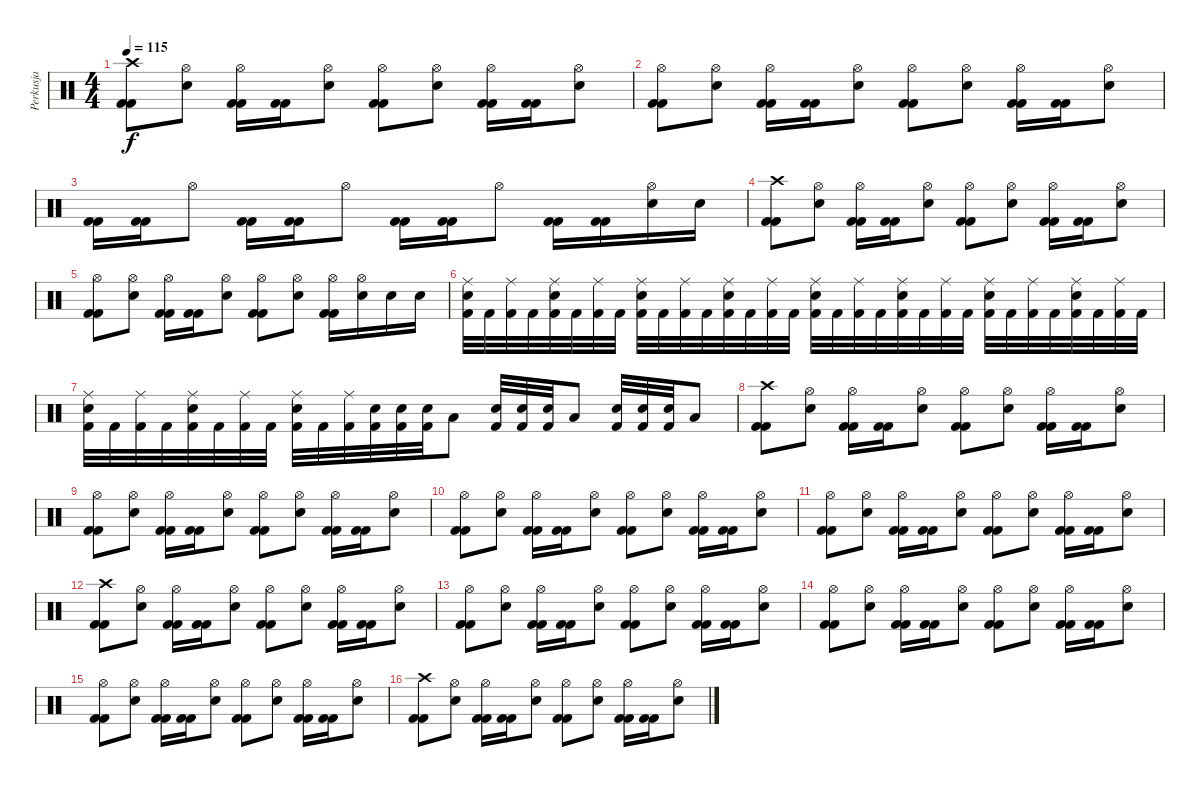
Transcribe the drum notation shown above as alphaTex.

\track ("Perkusja" "Perkusja") {instrument percussion}
\staff {score}
\articulation defaults
\ts (4 4)
\tempo 115
\clef neutral
\ks c
("Crash high (hit)" "Kick (hit) 2" "Kick (hit) 2").8{dy f} ("Hi-Hat (open)" "Electric Snare (hit)").8 ("Hi-Hat (open)" "Kick (hit) 2" "Kick (hit) 2").16 ("Kick (hit) 2" "Kick (hit) 2").16 ("Hi-Hat (open)" "Electric Snare (hit)").8 ("Hi-Hat (open)" "Kick (hit) 2" "Kick (hit) 2").8 ("Hi-Hat (open)" "Electric Snare (hit)").8 ("Hi-Hat (open)" "Kick (hit) 2" "Kick (hit) 2").16 ("Kick (hit) 2" "Kick (hit) 2").16 ("Hi-Hat (open)" "Electric Snare (hit)").8 |
("Hi-Hat (open)" "Kick (hit) 2" "Kick (hit) 2").8 ("Hi-Hat (open)" "Electric Snare (hit)").8 ("Hi-Hat (open)" "Kick (hit) 2" "Kick (hit) 2").16 ("Kick (hit) 2" "Kick (hit) 2").16 ("Hi-Hat (open)" "Electric Snare (hit)").8 ("Hi-Hat (open)" "Kick (hit) 2" "Kick (hit) 2").8 ("Hi-Hat (open)" "Electric Snare (hit)").8 ("Hi-Hat (open)" "Kick (hit) 2" "Kick (hit) 2").16 ("Kick (hit) 2" "Kick (hit) 2").16 ("Hi-Hat (open)" "Electric Snare (hit)").8 |
("Kick (hit) 2" "Kick (hit) 2").16 ("Kick (hit) 2" "Kick (hit) 2").16 "Hi-Hat (open)".8 ("Kick (hit) 2" "Kick (hit) 2").16 ("Kick (hit) 2" "Kick (hit) 2").16 "Hi-Hat (open)".8 ("Kick (hit) 2" "Kick (hit) 2").16 ("Kick (hit) 2" "Kick (hit) 2").16 "Hi-Hat (open)".8 ("Kick (hit) 2" "Kick (hit) 2").16 ("Kick (hit) 2" "Kick (hit) 2").16 ("Hi-Hat (open)" "Electric Snare (hit)").16 "Electric Snare (hit)".16 |
("Crash high (hit)" "Kick (hit) 2" "Kick (hit) 2").8 ("Hi-Hat (open)" "Electric Snare (hit)").8 ("Hi-Hat (open)" "Kick (hit) 2" "Kick (hit) 2").16 ("Kick (hit) 2" "Kick (hit) 2").16 ("Hi-Hat (open)" "Electric Snare (hit)").8 ("Hi-Hat (open)" "Kick (hit) 2" "Kick (hit) 2").8 ("Hi-Hat (open)" "Electric Snare (hit)").8 ("Hi-Hat (open)" "Kick (hit) 2" "Kick (hit) 2").16 ("Kick (hit) 2" "Kick (hit) 2").16 ("Hi-Hat (open)" "Electric Snare (hit)").8 |
("Hi-Hat (open)" "Kick (hit) 2" "Kick (hit) 2").8 ("Hi-Hat (open)" "Electric Snare (hit)").8 ("Hi-Hat (open)" "Kick (hit) 2" "Kick (hit) 2").16 ("Kick (hit) 2" "Kick (hit) 2").16 ("Hi-Hat (open)" "Electric Snare (hit)").8 ("Hi-Hat (open)" "Kick (hit) 2" "Kick (hit) 2").8 ("Hi-Hat (open)" "Electric Snare (hit)").8 ("Hi-Hat (open)" "Kick (hit) 2" "Kick (hit) 2").16 ("Hi-Hat (open)" "Electric Snare (hit)").16 "Electric Snare (hit)".16 "Electric Snare (hit)".16 |
("Ride (middle)" "Electric Snare (hit)" "Kick (hit) 2").32 "Kick (hit) 2".32 ("Ride (middle)" "Kick (hit) 2").32 "Kick (hit) 2".32 ("Ride (middle)" "Electric Snare (hit)" "Kick (hit) 2").32 "Kick (hit) 2".32 ("Ride (middle)" "Kick (hit) 2").32 "Kick (hit) 2".32 ("Ride (middle)" "Electric Snare (hit)" "Kick (hit) 2").32 "Kick (hit) 2".32 ("Ride (middle)" "Kick (hit) 2").32 "Kick (hit) 2".32 ("Ride (middle)" "Electric Snare (hit)" "Kick (hit) 2").32 "Kick (hit) 2".32 ("Ride (middle)" "Kick (hit) 2").32 "Kick (hit) 2".32 ("Ride (middle)" "Electric Snare (hit)" "Kick (hit) 2").32 "Kick (hit) 2".32 ("Ride (middle)" "Kick (hit) 2").32 "Kick (hit) 2".32 ("Ride (middle)" "Electric Snare (hit)" "Kick (hit) 2").32 "Kick (hit) 2".32 ("Ride (middle)" "Kick (hit) 2").32 "Kick (hit) 2".32 ("Ride (middle)" "Electric Snare (hit)" "Kick (hit) 2").32 "Kick (hit) 2".32 ("Ride (middle)" "Kick (hit) 2").32 "Kick (hit) 2".32 ("Ride (middle)" "Electric Snare (hit)" "Kick (hit) 2").32 "Kick (hit) 2".32 ("Ride (middle)" "Kick (hit) 2").32 "Kick (hit) 2".32 |
("Ride (middle)" "Electric Snare (hit)" "Kick (hit) 2").32 "Kick (hit) 2".32 ("Ride (middle)" "Kick (hit) 2").32 "Kick (hit) 2".32 ("Ride (middle)" "Electric Snare (hit)" "Kick (hit) 2").32 "Kick (hit) 2".32 ("Ride (middle)" "Kick (hit) 2").32 "Kick (hit) 2".32 ("Ride (middle)" "Electric Snare (hit)" "Kick (hit) 2").32 "Kick (hit) 2".32 ("Ride (middle)" "Kick (hit) 2").32 ("Electric Snare (hit)" "Kick (hit) 2").32 ("Electric Snare (hit)" "Kick (hit) 2").32 ("Electric Snare (hit)" "Kick (hit) 2").32 "Low Floor Tom (hit)".8 ("Electric Snare (hit)" "Kick (hit) 2").32 ("Electric Snare (hit)" "Kick (hit) 2").32 ("Electric Snare (hit)" "Kick (hit) 2").32 "Low Floor Tom (hit)".8 ("Electric Snare (hit)" "Kick (hit) 2").32 ("Electric Snare (hit)" "Kick (hit) 2").32 ("Electric Snare (hit)" "Kick (hit) 2").32 "Low Floor Tom (hit)".8 |
("Crash high (hit)" "Kick (hit) 2" "Kick (hit) 2").8 ("Hi-Hat (open)" "Electric Snare (hit)").8 ("Hi-Hat (open)" "Kick (hit) 2" "Kick (hit) 2").16 ("Kick (hit) 2" "Kick (hit) 2").16 ("Hi-Hat (open)" "Electric Snare (hit)").8 ("Hi-Hat (open)" "Kick (hit) 2" "Kick (hit) 2").8 ("Hi-Hat (open)" "Electric Snare (hit)").8 ("Hi-Hat (open)" "Kick (hit) 2" "Kick (hit) 2").16 ("Kick (hit) 2" "Kick (hit) 2").16 ("Hi-Hat (open)" "Electric Snare (hit)").8 |
("Hi-Hat (open)" "Kick (hit) 2" "Kick (hit) 2").8 ("Hi-Hat (open)" "Electric Snare (hit)").8 ("Hi-Hat (open)" "Kick (hit) 2" "Kick (hit) 2").16 ("Kick (hit) 2" "Kick (hit) 2").16 ("Hi-Hat (open)" "Electric Snare (hit)").8 ("Hi-Hat (open)" "Kick (hit) 2" "Kick (hit) 2").8 ("Hi-Hat (open)" "Electric Snare (hit)").8 ("Hi-Hat (open)" "Kick (hit) 2" "Kick (hit) 2").16 ("Kick (hit) 2" "Kick (hit) 2").16 ("Hi-Hat (open)" "Electric Snare (hit)").8 |
("Hi-Hat (open)" "Kick (hit) 2" "Kick (hit) 2").8 ("Hi-Hat (open)" "Electric Snare (hit)").8 ("Hi-Hat (open)" "Kick (hit) 2" "Kick (hit) 2").16 ("Kick (hit) 2" "Kick (hit) 2").16 ("Hi-Hat (open)" "Electric Snare (hit)").8 ("Hi-Hat (open)" "Kick (hit) 2" "Kick (hit) 2").8 ("Hi-Hat (open)" "Electric Snare (hit)").8 ("Hi-Hat (open)" "Kick (hit) 2" "Kick (hit) 2").16 ("Kick (hit) 2" "Kick (hit) 2").16 ("Hi-Hat (open)" "Electric Snare (hit)").8 |
("Hi-Hat (open)" "Kick (hit) 2" "Kick (hit) 2").8 ("Hi-Hat (open)" "Electric Snare (hit)").8 ("Hi-Hat (open)" "Kick (hit) 2" "Kick (hit) 2").16 ("Kick (hit) 2" "Kick (hit) 2").16 ("Hi-Hat (open)" "Electric Snare (hit)").8 ("Hi-Hat (open)" "Kick (hit) 2" "Kick (hit) 2").8 ("Hi-Hat (open)" "Electric Snare (hit)").8 ("Hi-Hat (open)" "Kick (hit) 2" "Kick (hit) 2").16 ("Kick (hit) 2" "Kick (hit) 2").16 ("Hi-Hat (open)" "Electric Snare (hit)").8 |
("Crash high (hit)" "Kick (hit) 2" "Kick (hit) 2").8 ("Hi-Hat (open)" "Electric Snare (hit)").8 ("Hi-Hat (open)" "Kick (hit) 2" "Kick (hit) 2").16 ("Kick (hit) 2" "Kick (hit) 2").16 ("Hi-Hat (open)" "Electric Snare (hit)").8 ("Hi-Hat (open)" "Kick (hit) 2" "Kick (hit) 2").8 ("Hi-Hat (open)" "Electric Snare (hit)").8 ("Hi-Hat (open)" "Kick (hit) 2" "Kick (hit) 2").16 ("Kick (hit) 2" "Kick (hit) 2").16 ("Hi-Hat (open)" "Electric Snare (hit)").8 |
("Hi-Hat (open)" "Kick (hit) 2" "Kick (hit) 2").8 ("Hi-Hat (open)" "Electric Snare (hit)").8 ("Hi-Hat (open)" "Kick (hit) 2" "Kick (hit) 2").16 ("Kick (hit) 2" "Kick (hit) 2").16 ("Hi-Hat (open)" "Electric Snare (hit)").8 ("Hi-Hat (open)" "Kick (hit) 2" "Kick (hit) 2").8 ("Hi-Hat (open)" "Electric Snare (hit)").8 ("Hi-Hat (open)" "Kick (hit) 2" "Kick (hit) 2").16 ("Kick (hit) 2" "Kick (hit) 2").16 ("Hi-Hat (open)" "Electric Snare (hit)").8 |
("Hi-Hat (open)" "Kick (hit) 2" "Kick (hit) 2").8 ("Hi-Hat (open)" "Electric Snare (hit)").8 ("Hi-Hat (open)" "Kick (hit) 2" "Kick (hit) 2").16 ("Kick (hit) 2" "Kick (hit) 2").16 ("Hi-Hat (open)" "Electric Snare (hit)").8 ("Hi-Hat (open)" "Kick (hit) 2" "Kick (hit) 2").8 ("Hi-Hat (open)" "Electric Snare (hit)").8 ("Hi-Hat (open)" "Kick (hit) 2" "Kick (hit) 2").16 ("Kick (hit) 2" "Kick (hit) 2").16 ("Hi-Hat (open)" "Electric Snare (hit)").8 |
("Hi-Hat (open)" "Kick (hit) 2" "Kick (hit) 2").8 ("Hi-Hat (open)" "Electric Snare (hit)").8 ("Hi-Hat (open)" "Kick (hit) 2" "Kick (hit) 2").16 ("Kick (hit) 2" "Kick (hit) 2").16 ("Hi-Hat (open)" "Electric Snare (hit)").8 ("Hi-Hat (open)" "Kick (hit) 2" "Kick (hit) 2").8 ("Hi-Hat (open)" "Electric Snare (hit)").8 ("Hi-Hat (open)" "Kick (hit) 2" "Kick (hit) 2").16 ("Kick (hit) 2" "Kick (hit) 2").16 ("Hi-Hat (open)" "Electric Snare (hit)").8 |
("Crash high (hit)" "Kick (hit) 2" "Kick (hit) 2").8 ("Hi-Hat (open)" "Electric Snare (hit)").8 ("Hi-Hat (open)" "Kick (hit) 2" "Kick (hit) 2").16 ("Kick (hit) 2" "Kick (hit) 2").16 ("Hi-Hat (open)" "Electric Snare (hit)").8 ("Hi-Hat (open)" "Kick (hit) 2" "Kick (hit) 2").8 ("Hi-Hat (open)" "Electric Snare (hit)").8 ("Hi-Hat (open)" "Kick (hit) 2" "Kick (hit) 2").16 ("Kick (hit) 2" "Kick (hit) 2").16 ("Hi-Hat (open)" "Electric Snare (hit)").8
